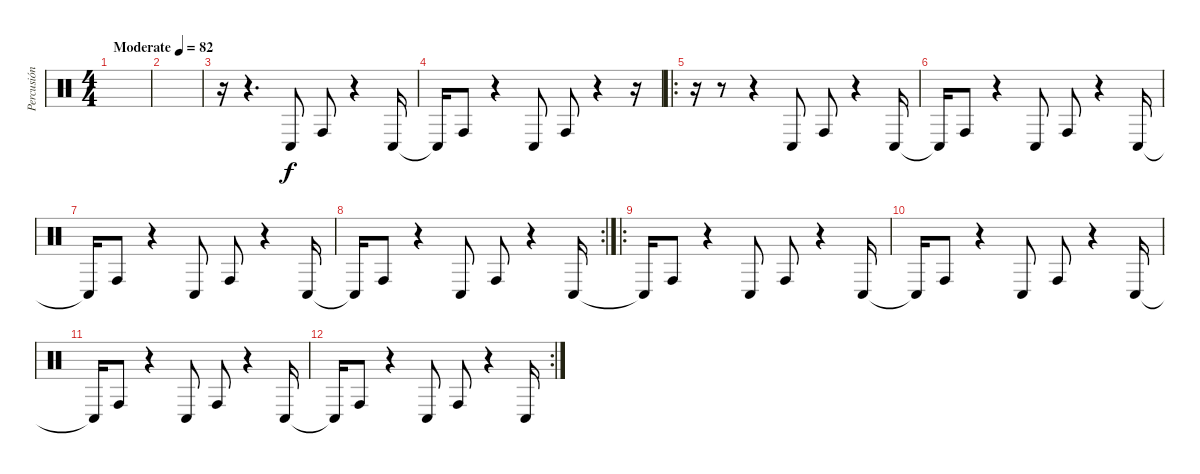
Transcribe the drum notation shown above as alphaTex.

\track ("Percusión" "Percusión") {instrument percussion}
\staff {score}
\articulation defaults
\ts (4 4)
\tempo (82 "Moderate")
\clef neutral
\ks c
|
|
r.16 r.4{d} "Conga low (hit)".8 "Conga high (hit)".8 r.4 "Conga low (hit)".16 |
"Conga low (hit)"{t}.16 "Conga high (hit)".8 r.4 "Conga low (hit)".8 "Conga high (hit)".8 r.4 r.16 |
\ro
r.16 r.8 r.4 "Conga low (hit)".8 "Conga high (hit)".8 r.4 "Conga low (hit)".16 |
"Conga low (hit)"{t}.16 "Conga high (hit)".8 r.4 "Conga low (hit)".8 "Conga high (hit)".8 r.4 "Conga low (hit)".16 |
"Conga low (hit)"{t}.16 "Conga high (hit)".8 r.4 "Conga low (hit)".8 "Conga high (hit)".8 r.4 "Conga low (hit)".16 |
\rc 2 "Conga low (hit)"{t}.16 "Conga high (hit)".8
r.4 "Conga low (hit)".8 "Conga high (hit)".8 r.4 "Conga low (hit)".16 |
\ro "Conga low (hit)"{t}.16 "Conga high (hit)".8
r.4 "Conga low (hit)".8 "Conga high (hit)".8 r.4 "Conga low (hit)".16 |
"Conga low (hit)"{t}.16 "Conga high (hit)".8 r.4 "Conga low (hit)".8 "Conga high (hit)".8 r.4 "Conga low (hit)".16 |
"Conga low (hit)"{t}.16 "Conga high (hit)".8 r.4 "Conga low (hit)".8 "Conga high (hit)".8 r.4 "Conga low (hit)".16 |
\rc 2 "Conga low (hit)"{t}.16 "Conga high (hit)".8
r.4 "Conga low (hit)".8 "Conga high (hit)".8 r.4 "Conga low (hit)".16
